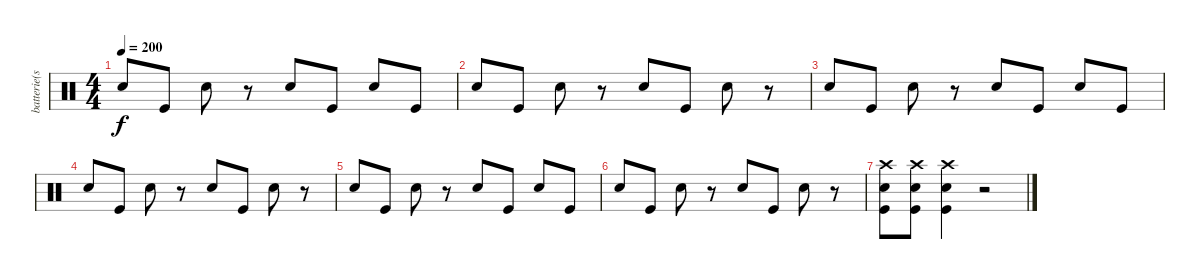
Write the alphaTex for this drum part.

\track ("batterie(scott)" "batterie(s") {instrument percussion}
\staff {score}
\articulation defaults
\ts (4 4)
\tempo 200
\clef neutral
\ks c "Snare (hit) 2".8{dy f} "Kick (hit)".8 "Snare (hit) 2".8
r.8 "Snare (hit) 2".8 "Kick (hit)".8 "Snare (hit) 2".8 "Kick (hit)".8 |
"Snare (hit) 2".8 "Kick (hit)".8 "Snare (hit) 2".8 r.8 "Snare (hit) 2".8 "Kick (hit)".8 "Snare (hit) 2".8 r.8 |
"Snare (hit) 2".8 "Kick (hit)".8 "Snare (hit) 2".8 r.8 "Snare (hit) 2".8 "Kick (hit)".8 "Snare (hit) 2".8 "Kick (hit)".8 |
"Snare (hit) 2".8 "Kick (hit)".8 "Snare (hit) 2".8 r.8 "Snare (hit) 2".8 "Kick (hit)".8 "Snare (hit) 2".8 r.8 |
"Snare (hit) 2".8 "Kick (hit)".8 "Snare (hit) 2".8 r.8 "Snare (hit) 2".8 "Kick (hit)".8 "Snare (hit) 2".8 "Kick (hit)".8 |
"Snare (hit) 2".8 "Kick (hit)".8 "Snare (hit) 2".8 r.8 "Snare (hit) 2".8 "Kick (hit)".8 "Snare (hit) 2".8 r.8 |
("Crash high (hit)" "Snare (hit) 2" "Kick (hit)").8 ("Crash high (hit)" "Snare (hit) 2" "Kick (hit)").8 ("Crash high (hit)" "Snare (hit) 2" "Kick (hit)").4 r.2
